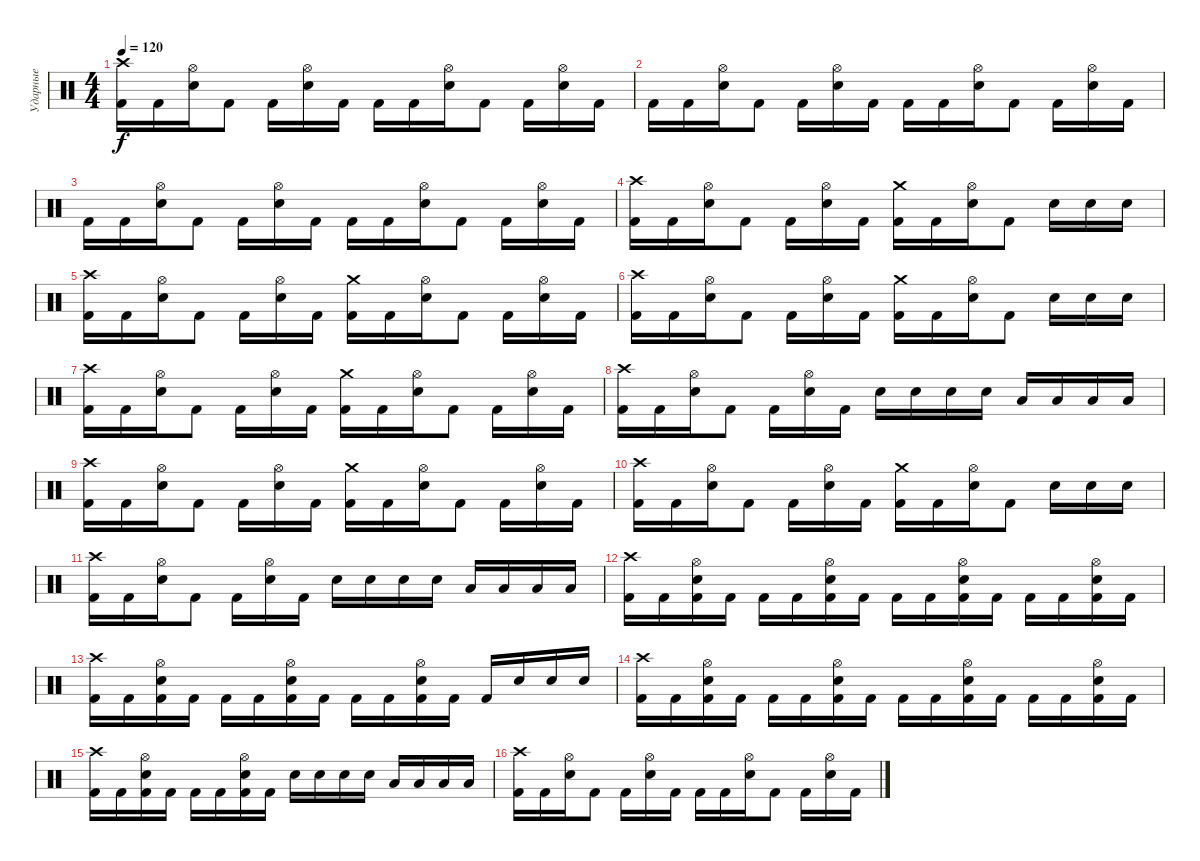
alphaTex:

\track ("Ударные" "Ударные") {instrument percussion}
\staff {score}
\articulation defaults
\ts (4 4)
\tempo 120
\clef neutral
\ks c
("Kick (hit) 2" "Crash high (hit)").16{dy f} "Kick (hit) 2".16 ("Electric Snare (hit)" "Hi-Hat (open)").16 "Kick (hit) 2".8 "Kick (hit) 2".16 ("Electric Snare (hit)" "Hi-Hat (open)").16 "Kick (hit) 2".16 "Kick (hit) 2".16 "Kick (hit) 2".16 ("Electric Snare (hit)" "Hi-Hat (open)").16 "Kick (hit) 2".8 "Kick (hit) 2".16 ("Electric Snare (hit)" "Hi-Hat (open)").16 "Kick (hit) 2".16 |
"Kick (hit) 2".16 "Kick (hit) 2".16 ("Electric Snare (hit)" "Hi-Hat (open)").16 "Kick (hit) 2".8 "Kick (hit) 2".16 ("Electric Snare (hit)" "Hi-Hat (open)").16 "Kick (hit) 2".16 "Kick (hit) 2".16 "Kick (hit) 2".16 ("Electric Snare (hit)" "Hi-Hat (open)").16 "Kick (hit) 2".8 "Kick (hit) 2".16 ("Electric Snare (hit)" "Hi-Hat (open)").16 "Kick (hit) 2".16 |
"Kick (hit) 2".16 "Kick (hit) 2".16 ("Electric Snare (hit)" "Hi-Hat (open)").16 "Kick (hit) 2".8 "Kick (hit) 2".16 ("Electric Snare (hit)" "Hi-Hat (open)").16 "Kick (hit) 2".16 "Kick (hit) 2".16 "Kick (hit) 2".16 ("Electric Snare (hit)" "Hi-Hat (open)").16 "Kick (hit) 2".8 "Kick (hit) 2".16 ("Electric Snare (hit)" "Hi-Hat (open)").16 "Kick (hit) 2".16 |
("Kick (hit) 2" "Crash high (hit)").16 "Kick (hit) 2".16 ("Electric Snare (hit)" "Hi-Hat (open)").16 "Kick (hit) 2".8 "Kick (hit) 2".16 ("Electric Snare (hit)" "Hi-Hat (open)").16 "Kick (hit) 2".16 ("Kick (hit) 2" "Crash medium (hit)").16 "Kick (hit) 2".16 ("Electric Snare (hit)" "Hi-Hat (open)").16 "Kick (hit) 2".8 "Electric Snare (hit)".16 "Electric Snare (hit)".16 "Electric Snare (hit)".16 |
("Kick (hit) 2" "Crash high (hit)").16 "Kick (hit) 2".16 ("Electric Snare (hit)" "Hi-Hat (open)").16 "Kick (hit) 2".8 "Kick (hit) 2".16 ("Electric Snare (hit)" "Hi-Hat (open)").16 "Kick (hit) 2".16 ("Kick (hit) 2" "Crash medium (hit)").16 "Kick (hit) 2".16 ("Electric Snare (hit)" "Hi-Hat (open)").16 "Kick (hit) 2".8 "Kick (hit) 2".16 ("Electric Snare (hit)" "Hi-Hat (open)").16 "Kick (hit) 2".16 |
("Kick (hit) 2" "Crash high (hit)").16 "Kick (hit) 2".16 ("Electric Snare (hit)" "Hi-Hat (open)").16 "Kick (hit) 2".8 "Kick (hit) 2".16 ("Electric Snare (hit)" "Hi-Hat (open)").16 "Kick (hit) 2".16 ("Kick (hit) 2" "Crash medium (hit)").16 "Kick (hit) 2".16 ("Electric Snare (hit)" "Hi-Hat (open)").16 "Kick (hit) 2".8 "Electric Snare (hit)".16 "Electric Snare (hit)".16 "Electric Snare (hit)".16 |
("Kick (hit) 2" "Crash high (hit)").16 "Kick (hit) 2".16 ("Electric Snare (hit)" "Hi-Hat (open)").16 "Kick (hit) 2".8 "Kick (hit) 2".16 ("Electric Snare (hit)" "Hi-Hat (open)").16 "Kick (hit) 2".16 ("Kick (hit) 2" "Crash medium (hit)").16 "Kick (hit) 2".16 ("Electric Snare (hit)" "Hi-Hat (open)").16 "Kick (hit) 2".8 "Kick (hit) 2".16 ("Electric Snare (hit)" "Hi-Hat (open)").16 "Kick (hit) 2".16 |
("Kick (hit) 2" "Crash high (hit)").16 "Kick (hit) 2".16 ("Electric Snare (hit)" "Hi-Hat (open)").16 "Kick (hit) 2".8 "Kick (hit) 2".16 ("Electric Snare (hit)" "Hi-Hat (open)").16 "Kick (hit) 2".16 "Electric Snare (hit)".16 "Electric Snare (hit)".16 "Electric Snare (hit)".16 "Electric Snare (hit)".16 "Low Tom (hit)".16 "Low Tom (hit)".16 "Low Tom (hit)".16 "Low Tom (hit)".16 |
("Kick (hit) 2" "Crash high (hit)").16 "Kick (hit) 2".16 ("Electric Snare (hit)" "Hi-Hat (open)").16 "Kick (hit) 2".8 "Kick (hit) 2".16 ("Electric Snare (hit)" "Hi-Hat (open)").16 "Kick (hit) 2".16 ("Kick (hit) 2" "Crash medium (hit)").16 "Kick (hit) 2".16 ("Electric Snare (hit)" "Hi-Hat (open)").16 "Kick (hit) 2".8 "Kick (hit) 2".16 ("Electric Snare (hit)" "Hi-Hat (open)").16 "Kick (hit) 2".16 |
("Kick (hit) 2" "Crash high (hit)").16 "Kick (hit) 2".16 ("Electric Snare (hit)" "Hi-Hat (open)").16 "Kick (hit) 2".8 "Kick (hit) 2".16 ("Electric Snare (hit)" "Hi-Hat (open)").16 "Kick (hit) 2".16 ("Kick (hit) 2" "Crash medium (hit)").16 "Kick (hit) 2".16 ("Electric Snare (hit)" "Hi-Hat (open)").16 "Kick (hit) 2".8 "Electric Snare (hit)".16 "Electric Snare (hit)".16 "Electric Snare (hit)".16 |
("Kick (hit) 2" "Crash high (hit)").16 "Kick (hit) 2".16 ("Electric Snare (hit)" "Hi-Hat (open)").16 "Kick (hit) 2".8 "Kick (hit) 2".16 ("Electric Snare (hit)" "Hi-Hat (open)").16 "Kick (hit) 2".16 "Electric Snare (hit)".16 "Electric Snare (hit)".16 "Electric Snare (hit)".16 "Electric Snare (hit)".16 "Low Tom (hit)".16 "Low Tom (hit)".16 "Low Tom (hit)".16 "Low Tom (hit)".16 |
("Kick (hit) 2" "Crash high (hit)").16 "Kick (hit) 2".16 ("Kick (hit) 2" "Electric Snare (hit)" "Hi-Hat (open)").16 "Kick (hit) 2".16 "Kick (hit) 2".16 "Kick (hit) 2".16 ("Kick (hit) 2" "Electric Snare (hit)" "Hi-Hat (open)").16 "Kick (hit) 2".16 "Kick (hit) 2".16 "Kick (hit) 2".16 ("Kick (hit) 2" "Electric Snare (hit)" "Hi-Hat (open)").16 "Kick (hit) 2".16 "Kick (hit) 2".16 "Kick (hit) 2".16 ("Kick (hit) 2" "Electric Snare (hit)" "Hi-Hat (open)").16 "Kick (hit) 2".16 |
("Kick (hit) 2" "Crash high (hit)").16 "Kick (hit) 2".16 ("Kick (hit) 2" "Electric Snare (hit)" "Hi-Hat (open)").16 "Kick (hit) 2".16 "Kick (hit) 2".16 "Kick (hit) 2".16 ("Kick (hit) 2" "Electric Snare (hit)" "Hi-Hat (open)").16 "Kick (hit) 2".16 "Kick (hit) 2".16 "Kick (hit) 2".16 ("Kick (hit) 2" "Electric Snare (hit)" "Hi-Hat (open)").16 "Kick (hit) 2".16 "Kick (hit) 2".16 "Electric Snare (hit)".16 "Electric Snare (hit)".16 "Electric Snare (hit)".16 |
("Kick (hit) 2" "Crash high (hit)").16 "Kick (hit) 2".16 ("Kick (hit) 2" "Electric Snare (hit)" "Hi-Hat (open)").16 "Kick (hit) 2".16 "Kick (hit) 2".16 "Kick (hit) 2".16 ("Kick (hit) 2" "Electric Snare (hit)" "Hi-Hat (open)").16 "Kick (hit) 2".16 "Kick (hit) 2".16 "Kick (hit) 2".16 ("Kick (hit) 2" "Electric Snare (hit)" "Hi-Hat (open)").16 "Kick (hit) 2".16 "Kick (hit) 2".16 "Kick (hit) 2".16 ("Kick (hit) 2" "Electric Snare (hit)" "Hi-Hat (open)").16 "Kick (hit) 2".16 |
("Kick (hit) 2" "Crash high (hit)").16 "Kick (hit) 2".16 ("Kick (hit) 2" "Electric Snare (hit)" "Hi-Hat (open)").16 "Kick (hit) 2".16 "Kick (hit) 2".16 "Kick (hit) 2".16 ("Kick (hit) 2" "Electric Snare (hit)" "Hi-Hat (open)").16 "Kick (hit) 2".16 "Electric Snare (hit)".16 "Electric Snare (hit)".16 "Electric Snare (hit)".16 "Electric Snare (hit)".16 "Low Tom (hit)".16 "Low Tom (hit)".16 "Low Tom (hit)".16 "Low Tom (hit)".16 |
("Kick (hit) 2" "Crash high (hit)").16 "Kick (hit) 2".16 ("Electric Snare (hit)" "Hi-Hat (open)").16 "Kick (hit) 2".8 "Kick (hit) 2".16 ("Electric Snare (hit)" "Hi-Hat (open)").16 "Kick (hit) 2".16 "Kick (hit) 2".16 "Kick (hit) 2".16 ("Electric Snare (hit)" "Hi-Hat (open)").16 "Kick (hit) 2".8 "Kick (hit) 2".16 ("Electric Snare (hit)" "Hi-Hat (open)").16 "Kick (hit) 2".16
